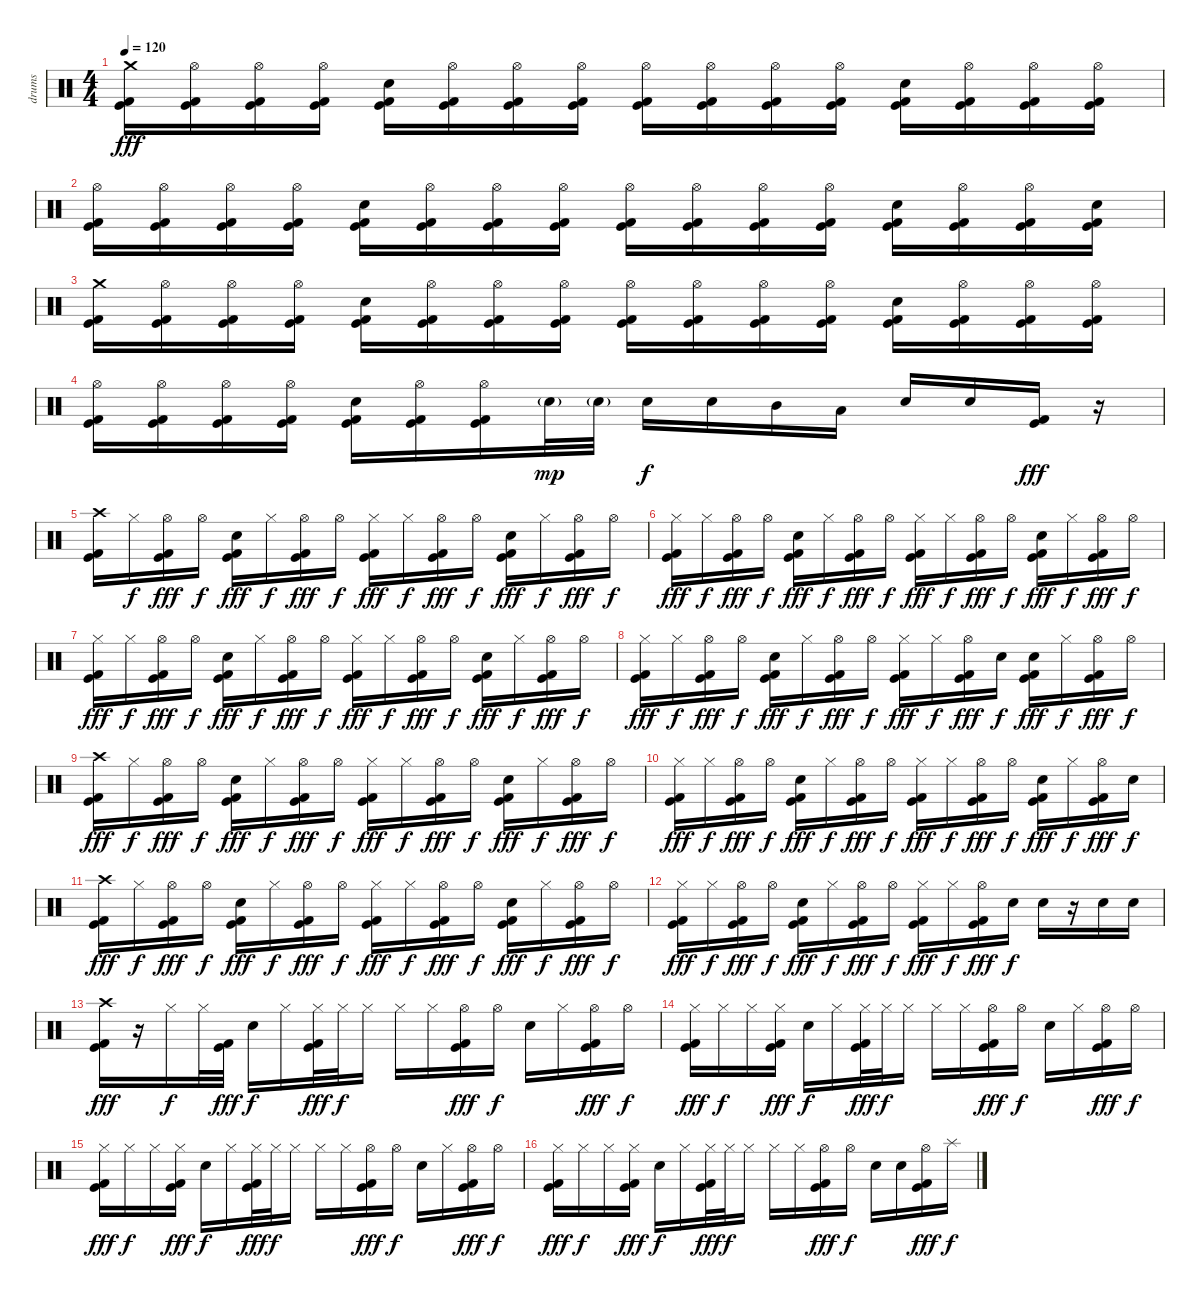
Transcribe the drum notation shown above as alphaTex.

\track ("drums" "drums") {instrument percussion}
\staff {score}
\articulation defaults
\ts (4 4)
\tempo 120
\clef neutral
\ks c
("Crash medium (hit)" "Kick (hit)" "Kick (hit) 2").16{dy fff} ("Hi-Hat (open)" "Kick (hit)" "Kick (hit) 2").16 ("Hi-Hat (open)" "Kick (hit)" "Kick (hit) 2").16 ("Hi-Hat (open)" "Kick (hit)" "Kick (hit) 2").16 ("Electric Snare (hit)" "Kick (hit)" "Kick (hit) 2").16 ("Hi-Hat (open)" "Kick (hit)" "Kick (hit) 2").16 ("Hi-Hat (open)" "Kick (hit)" "Kick (hit) 2").16 ("Hi-Hat (open)" "Kick (hit)" "Kick (hit) 2").16 ("Hi-Hat (open)" "Kick (hit)" "Kick (hit) 2").16 ("Hi-Hat (open)" "Kick (hit)" "Kick (hit) 2").16 ("Hi-Hat (open)" "Kick (hit)" "Kick (hit) 2").16 ("Hi-Hat (open)" "Kick (hit)" "Kick (hit) 2").16 ("Electric Snare (hit)" "Kick (hit)" "Kick (hit) 2").16 ("Hi-Hat (open)" "Kick (hit)" "Kick (hit) 2").16 ("Hi-Hat (open)" "Kick (hit)" "Kick (hit) 2").16 ("Hi-Hat (open)" "Kick (hit)" "Kick (hit) 2").16 |
("Hi-Hat (open)" "Kick (hit)" "Kick (hit) 2").16 ("Hi-Hat (open)" "Kick (hit)" "Kick (hit) 2").16 ("Hi-Hat (open)" "Kick (hit)" "Kick (hit) 2").16 ("Hi-Hat (open)" "Kick (hit)" "Kick (hit) 2").16 ("Electric Snare (hit)" "Kick (hit)" "Kick (hit) 2").16 ("Hi-Hat (open)" "Kick (hit)" "Kick (hit) 2").16 ("Hi-Hat (open)" "Kick (hit)" "Kick (hit) 2").16 ("Hi-Hat (open)" "Kick (hit)" "Kick (hit) 2").16 ("Hi-Hat (open)" "Kick (hit)" "Kick (hit) 2").16 ("Hi-Hat (open)" "Kick (hit)" "Kick (hit) 2").16 ("Hi-Hat (open)" "Kick (hit)" "Kick (hit) 2").16 ("Hi-Hat (open)" "Kick (hit)" "Kick (hit) 2").16 ("Electric Snare (hit)" "Kick (hit)" "Kick (hit) 2").16 ("Hi-Hat (open)" "Kick (hit)" "Kick (hit) 2").16 ("Hi-Hat (open)" "Kick (hit)" "Kick (hit) 2").16 ("Electric Snare (hit)" "Kick (hit)" "Kick (hit) 2").16 |
("Crash medium (hit)" "Kick (hit)" "Kick (hit) 2").16 ("Hi-Hat (open)" "Kick (hit)" "Kick (hit) 2").16 ("Hi-Hat (open)" "Kick (hit)" "Kick (hit) 2").16 ("Hi-Hat (open)" "Kick (hit)" "Kick (hit) 2").16 ("Electric Snare (hit)" "Kick (hit)" "Kick (hit) 2").16 ("Hi-Hat (open)" "Kick (hit)" "Kick (hit) 2").16 ("Hi-Hat (open)" "Kick (hit)" "Kick (hit) 2").16 ("Hi-Hat (open)" "Kick (hit)" "Kick (hit) 2").16 ("Hi-Hat (open)" "Kick (hit)" "Kick (hit) 2").16 ("Hi-Hat (open)" "Kick (hit)" "Kick (hit) 2").16 ("Hi-Hat (open)" "Kick (hit)" "Kick (hit) 2").16 ("Hi-Hat (open)" "Kick (hit)" "Kick (hit) 2").16 ("Electric Snare (hit)" "Kick (hit)" "Kick (hit) 2").16 ("Hi-Hat (open)" "Kick (hit)" "Kick (hit) 2").16 ("Hi-Hat (open)" "Kick (hit)" "Kick (hit) 2").16 ("Hi-Hat (open)" "Kick (hit)" "Kick (hit) 2").16 |
("Hi-Hat (open)" "Kick (hit)" "Kick (hit) 2").16 ("Hi-Hat (open)" "Kick (hit)" "Kick (hit) 2").16 ("Hi-Hat (open)" "Kick (hit)" "Kick (hit) 2").16 ("Hi-Hat (open)" "Kick (hit)" "Kick (hit) 2").16 ("Electric Snare (hit)" "Kick (hit)" "Kick (hit) 2").16 ("Hi-Hat (open)" "Kick (hit)" "Kick (hit) 2").16 ("Hi-Hat (open)" "Kick (hit)" "Kick (hit) 2").16 "Electric Snare (hit)"{g}.32{dy mp} "Electric Snare (hit)"{g}.32 "Electric Snare (hit)".16{dy f} "Electric Snare (hit)".16 "Mid Tom (hit)".16 "Low Tom (hit)".16 "Electric Snare (hit)".16 "Electric Snare (hit)".16 ("Kick (hit)" "Kick (hit) 2").16{dy fff} r.16 |
("Crash high (hit)" "Kick (hit)" "Kick (hit) 2").16 "Hi-Hat (closed)".16{dy f} ("Hi-Hat (open)" "Kick (hit)" "Kick (hit) 2").16{dy fff} "Hi-Hat (open)".16{dy f} ("Electric Snare (hit)" "Kick (hit)" "Kick (hit) 2").16{dy fff} "Hi-Hat (closed)".16{dy f} ("Hi-Hat (open)" "Kick (hit)" "Kick (hit) 2").16{dy fff} "Hi-Hat (open)".16{dy f} ("Hi-Hat (closed)" "Kick (hit)" "Kick (hit) 2").16{dy fff} "Hi-Hat (closed)".16{dy f} ("Hi-Hat (open)" "Kick (hit)" "Kick (hit) 2").16{dy fff} "Hi-Hat (open)".16{dy f} ("Electric Snare (hit)" "Kick (hit)" "Kick (hit) 2").16{dy fff} "Hi-Hat (closed)".16{dy f} ("Hi-Hat (open)" "Kick (hit)" "Kick (hit) 2").16{dy fff} "Hi-Hat (open)".16{dy f} |
("Hi-Hat (closed)" "Kick (hit)" "Kick (hit) 2").16{dy fff} "Hi-Hat (closed)".16{dy f} ("Hi-Hat (open)" "Kick (hit)" "Kick (hit) 2").16{dy fff} "Hi-Hat (open)".16{dy f} ("Electric Snare (hit)" "Kick (hit)" "Kick (hit) 2").16{dy fff} "Hi-Hat (closed)".16{dy f} ("Hi-Hat (open)" "Kick (hit)" "Kick (hit) 2").16{dy fff} "Hi-Hat (open)".16{dy f} ("Hi-Hat (closed)" "Kick (hit)" "Kick (hit) 2").16{dy fff} "Hi-Hat (closed)".16{dy f} ("Hi-Hat (open)" "Kick (hit)" "Kick (hit) 2").16{dy fff} "Hi-Hat (open)".16{dy f} ("Electric Snare (hit)" "Kick (hit)" "Kick (hit) 2").16{dy fff} "Hi-Hat (closed)".16{dy f} ("Hi-Hat (open)" "Kick (hit)" "Kick (hit) 2").16{dy fff} "Hi-Hat (open)".16{dy f} |
("Hi-Hat (closed)" "Kick (hit)" "Kick (hit) 2").16{dy fff} "Hi-Hat (closed)".16{dy f} ("Hi-Hat (open)" "Kick (hit)" "Kick (hit) 2").16{dy fff} "Hi-Hat (open)".16{dy f} ("Electric Snare (hit)" "Kick (hit)" "Kick (hit) 2").16{dy fff} "Hi-Hat (closed)".16{dy f} ("Hi-Hat (open)" "Kick (hit)" "Kick (hit) 2").16{dy fff} "Hi-Hat (open)".16{dy f} ("Hi-Hat (closed)" "Kick (hit)" "Kick (hit) 2").16{dy fff} "Hi-Hat (closed)".16{dy f} ("Hi-Hat (open)" "Kick (hit)" "Kick (hit) 2").16{dy fff} "Hi-Hat (open)".16{dy f} ("Electric Snare (hit)" "Kick (hit)" "Kick (hit) 2").16{dy fff} "Hi-Hat (closed)".16{dy f} ("Hi-Hat (open)" "Kick (hit)" "Kick (hit) 2").16{dy fff} "Hi-Hat (open)".16{dy f} |
("Hi-Hat (closed)" "Kick (hit)" "Kick (hit) 2").16{dy fff} "Hi-Hat (closed)".16{dy f} ("Hi-Hat (open)" "Kick (hit)" "Kick (hit) 2").16{dy fff} "Hi-Hat (open)".16{dy f} ("Electric Snare (hit)" "Kick (hit)" "Kick (hit) 2").16{dy fff} "Hi-Hat (closed)".16{dy f} ("Hi-Hat (open)" "Kick (hit)" "Kick (hit) 2").16{dy fff} "Hi-Hat (open)".16{dy f} ("Hi-Hat (closed)" "Kick (hit)" "Kick (hit) 2").16{dy fff} "Hi-Hat (closed)".16{dy f} ("Hi-Hat (open)" "Kick (hit)" "Kick (hit) 2").16{dy fff} "Electric Snare (hit)".16{dy f} ("Electric Snare (hit)" "Kick (hit)" "Kick (hit) 2").16{dy fff} "Hi-Hat (closed)".16{dy f} ("Hi-Hat (open)" "Kick (hit)" "Kick (hit) 2").16{dy fff} "Hi-Hat (open)".16{dy f} |
("Crash high (hit)" "Kick (hit)" "Kick (hit) 2").16{dy fff} "Hi-Hat (closed)".16{dy f} ("Hi-Hat (open)" "Kick (hit)" "Kick (hit) 2").16{dy fff} "Hi-Hat (open)".16{dy f} ("Electric Snare (hit)" "Kick (hit)" "Kick (hit) 2").16{dy fff} "Hi-Hat (closed)".16{dy f} ("Hi-Hat (open)" "Kick (hit)" "Kick (hit) 2").16{dy fff} "Hi-Hat (open)".16{dy f} ("Hi-Hat (closed)" "Kick (hit)" "Kick (hit) 2").16{dy fff} "Hi-Hat (closed)".16{dy f} ("Hi-Hat (open)" "Kick (hit)" "Kick (hit) 2").16{dy fff} "Hi-Hat (open)".16{dy f} ("Electric Snare (hit)" "Kick (hit)" "Kick (hit) 2").16{dy fff} "Hi-Hat (closed)".16{dy f} ("Hi-Hat (open)" "Kick (hit)" "Kick (hit) 2").16{dy fff} "Hi-Hat (open)".16{dy f} |
("Hi-Hat (closed)" "Kick (hit)" "Kick (hit) 2").16{dy fff} "Hi-Hat (closed)".16{dy f} ("Hi-Hat (open)" "Kick (hit)" "Kick (hit) 2").16{dy fff} "Hi-Hat (open)".16{dy f} ("Electric Snare (hit)" "Kick (hit)" "Kick (hit) 2").16{dy fff} "Hi-Hat (closed)".16{dy f} ("Hi-Hat (open)" "Kick (hit)" "Kick (hit) 2").16{dy fff} "Hi-Hat (open)".16{dy f} ("Hi-Hat (closed)" "Kick (hit)" "Kick (hit) 2").16{dy fff} "Hi-Hat (closed)".16{dy f} ("Hi-Hat (open)" "Kick (hit)" "Kick (hit) 2").16{dy fff} "Hi-Hat (open)".16{dy f} ("Electric Snare (hit)" "Kick (hit)" "Kick (hit) 2").16{dy fff} "Hi-Hat (closed)".16{dy f} ("Hi-Hat (open)" "Kick (hit)" "Kick (hit) 2").16{dy fff} "Electric Snare (hit)".16{dy f} |
("Crash high (hit)" "Kick (hit)" "Kick (hit) 2").16{dy fff} "Hi-Hat (closed)".16{dy f} ("Hi-Hat (open)" "Kick (hit)" "Kick (hit) 2").16{dy fff} "Hi-Hat (open)".16{dy f} ("Electric Snare (hit)" "Kick (hit)" "Kick (hit) 2").16{dy fff} "Hi-Hat (closed)".16{dy f} ("Hi-Hat (open)" "Kick (hit)" "Kick (hit) 2").16{dy fff} "Hi-Hat (open)".16{dy f} ("Hi-Hat (closed)" "Kick (hit)" "Kick (hit) 2").16{dy fff} "Hi-Hat (closed)".16{dy f} ("Hi-Hat (open)" "Kick (hit)" "Kick (hit) 2").16{dy fff} "Hi-Hat (open)".16{dy f} ("Electric Snare (hit)" "Kick (hit)" "Kick (hit) 2").16{dy fff} "Hi-Hat (closed)".16{dy f} ("Hi-Hat (open)" "Kick (hit)" "Kick (hit) 2").16{dy fff} "Hi-Hat (open)".16{dy f} |
("Hi-Hat (closed)" "Kick (hit)" "Kick (hit) 2").16{dy fff} "Hi-Hat (closed)".16{dy f} ("Hi-Hat (open)" "Kick (hit)" "Kick (hit) 2").16{dy fff} "Hi-Hat (open)".16{dy f} ("Electric Snare (hit)" "Kick (hit)" "Kick (hit) 2").16{dy fff} "Hi-Hat (closed)".16{dy f} ("Hi-Hat (open)" "Kick (hit)" "Kick (hit) 2").16{dy fff} "Hi-Hat (open)".16{dy f} ("Hi-Hat (closed)" "Kick (hit)" "Kick (hit) 2").16{dy fff} "Hi-Hat (closed)".16{dy f} ("Hi-Hat (open)" "Kick (hit)" "Kick (hit) 2").16{dy fff} "Electric Snare (hit)".16{dy f} "Electric Snare (hit)".16 r.16 "Electric Snare (hit)".16 "Electric Snare (hit)".16 |
("Crash high (hit)" "Kick (hit)" "Kick (hit) 2").16{dy fff} r.16 "Hi-Hat (closed)".16{dy f} "Hi-Hat (closed)".32 ("Kick (hit)" "Kick (hit) 2").32{dy fff} "Electric Snare (hit)".16{dy f} "Hi-Hat (closed)".16 ("Hi-Hat (closed)" "Kick (hit)" "Kick (hit) 2").32{dy fff} "Hi-Hat (closed)".32{dy f} "Hi-Hat (closed)".16 "Hi-Hat (closed)".16 "Hi-Hat (closed)".16 ("Hi-Hat (open)" "Kick (hit)" "Kick (hit) 2").16{dy fff} "Hi-Hat (open)".16{dy f} "Electric Snare (hit)".16 "Hi-Hat (closed)".16 ("Hi-Hat (open)" "Kick (hit)" "Kick (hit) 2").16{dy fff} "Hi-Hat (open)".16{dy f} |
("Hi-Hat (closed)" "Kick (hit)" "Kick (hit) 2").16{dy fff} "Hi-Hat (closed)".16{dy f} "Hi-Hat (closed)".16 ("Hi-Hat (closed)" "Kick (hit)" "Kick (hit) 2").16{dy fff} "Electric Snare (hit)".16{dy f} "Hi-Hat (closed)".16 ("Hi-Hat (closed)" "Kick (hit)" "Kick (hit) 2").32{dy fff} "Hi-Hat (closed)".32{dy f} "Hi-Hat (closed)".16 "Hi-Hat (closed)".16 "Hi-Hat (closed)".16 ("Hi-Hat (open)" "Kick (hit)" "Kick (hit) 2").16{dy fff} "Hi-Hat (open)".16{dy f} "Electric Snare (hit)".16 "Hi-Hat (closed)".16 ("Hi-Hat (open)" "Kick (hit)" "Kick (hit) 2").16{dy fff} "Hi-Hat (open)".16{dy f} |
("Hi-Hat (closed)" "Kick (hit)" "Kick (hit) 2").16{dy fff} "Hi-Hat (closed)".16{dy f} "Hi-Hat (closed)".16 ("Hi-Hat (closed)" "Kick (hit)" "Kick (hit) 2").16{dy fff} "Electric Snare (hit)".16{dy f} "Hi-Hat (closed)".16 ("Hi-Hat (closed)" "Kick (hit)" "Kick (hit) 2").32{dy fff} "Hi-Hat (closed)".32{dy f} "Hi-Hat (closed)".16 "Hi-Hat (closed)".16 "Hi-Hat (closed)".16 ("Hi-Hat (open)" "Kick (hit)" "Kick (hit) 2").16{dy fff} "Hi-Hat (open)".16{dy f} "Electric Snare (hit)".16 "Hi-Hat (closed)".16 ("Hi-Hat (open)" "Kick (hit)" "Kick (hit) 2").16{dy fff} "Hi-Hat (open)".16{dy f} |
("Hi-Hat (closed)" "Kick (hit)" "Kick (hit) 2").16{dy fff} "Hi-Hat (closed)".16{dy f} "Hi-Hat (closed)".16 ("Hi-Hat (closed)" "Kick (hit)" "Kick (hit) 2").16{dy fff} "Electric Snare (hit)".16{dy f} "Hi-Hat (closed)".16 ("Hi-Hat (closed)" "Kick (hit)" "Kick (hit) 2").32{dy fff} "Hi-Hat (closed)".32{dy f} "Hi-Hat (closed)".16 "Hi-Hat (closed)".16 "Hi-Hat (closed)".16 ("Hi-Hat (open)" "Kick (hit)" "Kick (hit) 2").16{dy fff} "Hi-Hat (open)".16{dy f} "Electric Snare (hit)".16 "Electric Snare (hit)".16 ("Hi-Hat (open)" "Kick (hit)" "Kick (hit) 2").16{dy fff} "Splash (hit)".16{dy f}
